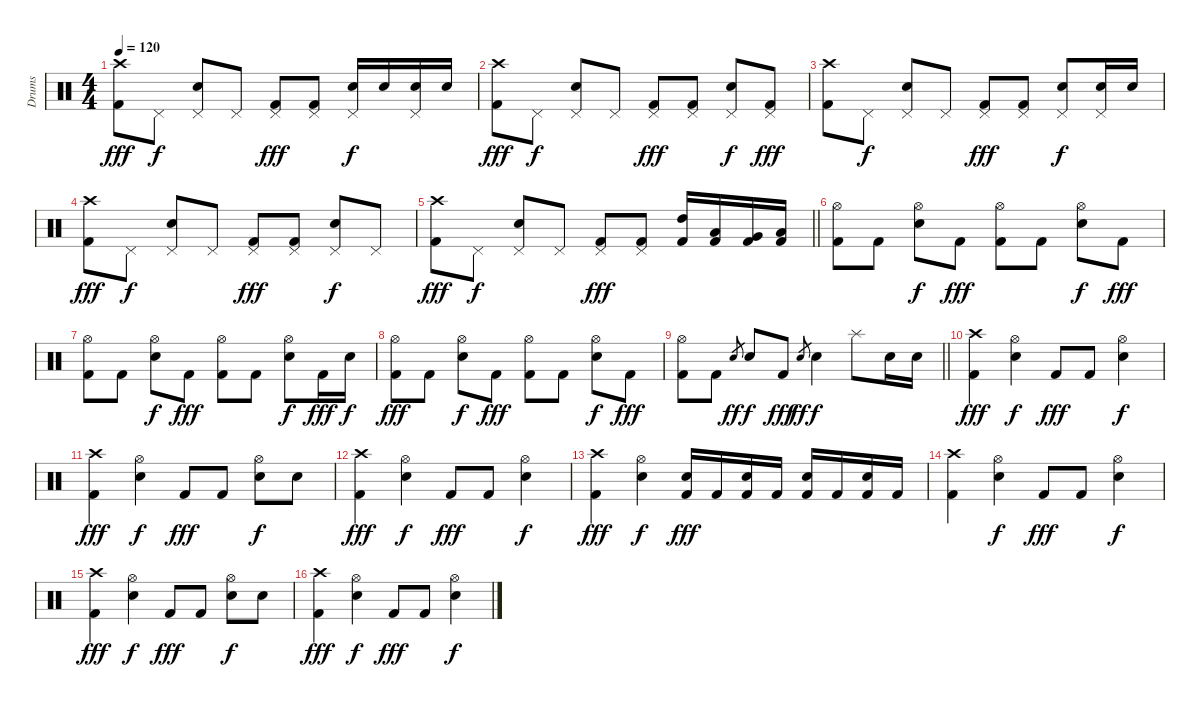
\track ("Drums" "Drums") {instrument percussion}
\staff {score}
\articulation defaults
\ts (4 4)
\tempo 120
\clef neutral
\ks c
("Crash high (hit)" "Kick (hit) 2").8{dy fff} "Pedal Hi-Hat (hit)".8{dy f} ("Pedal Hi-Hat (hit)" "Snare (hit) 2").8 "Pedal Hi-Hat (hit)".8 ("Pedal Hi-Hat (hit)" "Kick (hit) 2").8{dy fff} ("Pedal Hi-Hat (hit)" "Kick (hit) 2").8 ("Pedal Hi-Hat (hit)" "Snare (hit) 2").16{dy f} "Snare (hit) 2".16 ("Pedal Hi-Hat (hit)" "Snare (hit) 2").16 "Snare (hit) 2".16 |
("Crash high (hit)" "Kick (hit) 2").8{dy fff} "Pedal Hi-Hat (hit)".8{dy f} ("Pedal Hi-Hat (hit)" "Snare (hit) 2").8 "Pedal Hi-Hat (hit)".8 ("Pedal Hi-Hat (hit)" "Kick (hit) 2").8{dy fff} ("Pedal Hi-Hat (hit)" "Kick (hit) 2").8 ("Pedal Hi-Hat (hit)" "Snare (hit) 2").8{dy f} ("Pedal Hi-Hat (hit)" "Kick (hit) 2").8{dy fff} |
("Crash high (hit)" "Kick (hit) 2").8 "Pedal Hi-Hat (hit)".8{dy f} ("Pedal Hi-Hat (hit)" "Snare (hit) 2").8 "Pedal Hi-Hat (hit)".8 ("Pedal Hi-Hat (hit)" "Kick (hit) 2").8{dy fff} ("Pedal Hi-Hat (hit)" "Kick (hit) 2").8 ("Pedal Hi-Hat (hit)" "Snare (hit) 2").8{dy f} ("Pedal Hi-Hat (hit)" "Snare (hit) 2").16 "Snare (hit) 2".16 |
("Crash high (hit)" "Kick (hit) 2").8{dy fff} "Pedal Hi-Hat (hit)".8{dy f} ("Pedal Hi-Hat (hit)" "Snare (hit) 2").8 "Pedal Hi-Hat (hit)".8 ("Pedal Hi-Hat (hit)" "Kick (hit) 2").8{dy fff} ("Pedal Hi-Hat (hit)" "Kick (hit) 2").8 ("Pedal Hi-Hat (hit)" "Snare (hit) 2").8{dy f} "Pedal Hi-Hat (hit)".8 |
\barLineRight lightlight
("Crash high (hit)" "Kick (hit) 2").8{dy fff} "Pedal Hi-Hat (hit)".8{dy f} ("Pedal Hi-Hat (hit)" "Snare (hit) 2").8 "Pedal Hi-Hat (hit)".8 ("Pedal Hi-Hat (hit)" "Kick (hit) 2").8{dy fff} ("Pedal Hi-Hat (hit)" "Kick (hit) 2").8 ("High Tom (hit)" "Kick (hit) 2").16 ("Low Tom (hit)" "Kick (hit) 2").16 ("Very Low Tom (hit)" "Kick (hit) 2").16 ("Low Floor Tom (hit)" "Kick (hit) 2").16 |
\section ("" "")
("Hi-Hat (open)" "Kick (hit) 2").8 "Kick (hit) 2".8 ("Hi-Hat (open)" "Snare (hit) 2").8{dy f} "Kick (hit) 2".8{dy fff} ("Hi-Hat (open)" "Kick (hit) 2").8 "Kick (hit) 2".8 ("Hi-Hat (open)" "Snare (hit) 2").8{dy f} "Kick (hit) 2".8{dy fff} |
("Hi-Hat (open)" "Kick (hit) 2").8 "Kick (hit) 2".8 ("Hi-Hat (open)" "Snare (hit) 2").8{dy f} "Kick (hit) 2".8{dy fff} ("Hi-Hat (open)" "Kick (hit) 2").8 "Kick (hit) 2".8 ("Hi-Hat (open)" "Snare (hit) 2").8{dy f} "Kick (hit) 2".16{dy fff} "Snare (hit) 2".16{dy f} |
("Hi-Hat (open)" "Kick (hit) 2").8{dy fff} "Kick (hit) 2".8 ("Hi-Hat (open)" "Snare (hit) 2").8{dy f} "Kick (hit) 2".8{dy fff} ("Hi-Hat (open)" "Kick (hit) 2").8 "Kick (hit) 2".8 ("Hi-Hat (open)" "Snare (hit) 2").8{dy f} "Kick (hit) 2".8{dy fff} |
\barLineRight lightlight
("Hi-Hat (open)" "Kick (hit) 2").8 "Kick (hit) 2".8 "Snare (hit) 2".8{gr dy ff} "Snare (hit) 2".8{dy f} "Kick (hit) 2".8{dy fff} "Snare (hit) 2".8{gr dy ff} "Snare (hit) 2".4{dy f} "Splash (hit)".8 "Snare (hit) 2".16 "Snare (hit) 2".16 |
\section ("" "")
("Crash high (hit)" "Kick (hit) 2").4{dy fff} ("Hi-Hat (open)" "Snare (hit) 2").4{dy f} "Kick (hit) 2".8{dy fff} "Kick (hit) 2".8 ("Hi-Hat (open)" "Snare (hit) 2").4{dy f} |
("Crash high (hit)" "Kick (hit) 2").4{dy fff} ("Hi-Hat (open)" "Snare (hit) 2").4{dy f} "Kick (hit) 2".8{dy fff} "Kick (hit) 2".8 ("Hi-Hat (open)" "Snare (hit) 2").8{dy f} "Snare (hit) 2".8 |
("Crash high (hit)" "Kick (hit) 2").4{dy fff} ("Hi-Hat (open)" "Snare (hit) 2").4{dy f} "Kick (hit) 2".8{dy fff} "Kick (hit) 2".8 ("Hi-Hat (open)" "Snare (hit) 2").4{dy f} |
("Crash high (hit)" "Kick (hit) 2").4{dy fff} ("Hi-Hat (open)" "Snare (hit) 2").4{dy f} ("Snare (hit) 2" "Kick (hit) 2").16{dy fff} "Kick (hit) 2".16 ("Snare (hit) 2" "Kick (hit) 2").16 "Kick (hit) 2".16 ("Snare (hit) 2" "Kick (hit) 2").16 "Kick (hit) 2".16 ("Snare (hit) 2" "Kick (hit) 2").16 "Kick (hit) 2".16 |
("Crash high (hit)" "Kick (hit) 2").4 ("Hi-Hat (open)" "Snare (hit) 2").4{dy f} "Kick (hit) 2".8{dy fff} "Kick (hit) 2".8 ("Hi-Hat (open)" "Snare (hit) 2").4{dy f} |
("Crash high (hit)" "Kick (hit) 2").4{dy fff} ("Hi-Hat (open)" "Snare (hit) 2").4{dy f} "Kick (hit) 2".8{dy fff} "Kick (hit) 2".8 ("Hi-Hat (open)" "Snare (hit) 2").8{dy f} "Snare (hit) 2".8 |
("Crash high (hit)" "Kick (hit) 2").4{dy fff} ("Hi-Hat (open)" "Snare (hit) 2").4{dy f} "Kick (hit) 2".8{dy fff} "Kick (hit) 2".8 ("Hi-Hat (open)" "Snare (hit) 2").4{dy f}
